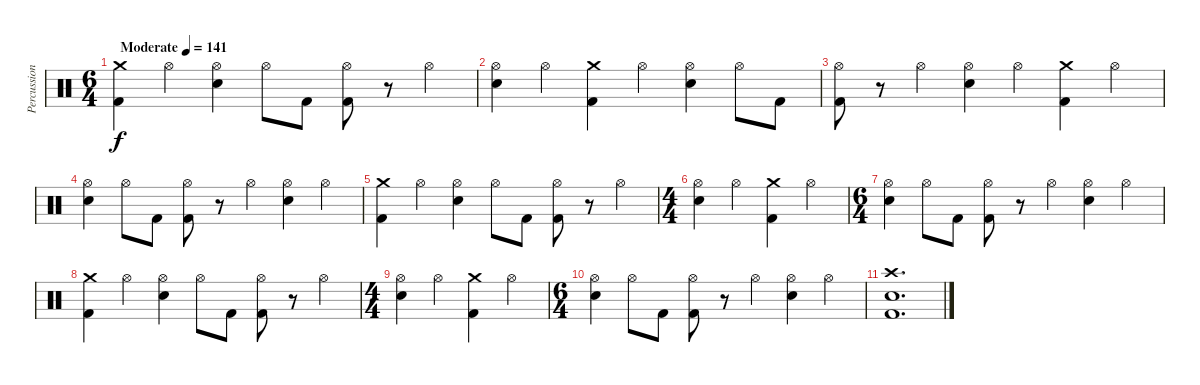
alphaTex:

\track ("Percussion" "Percussion") {instrument percussion}
\staff {score}
\articulation defaults
\ts (6 4)
\tempo (141 "Moderate")
\clef neutral
\ks c
("Crash medium (hit)" "Kick (hit) 2").4{dy f} "Hi-Hat (open)".4 ("Hi-Hat (open)" "Snare (hit) 2").4 "Hi-Hat (open)".8 "Kick (hit) 2".8 ("Hi-Hat (open)" "Kick (hit) 2").8 r.8 "Hi-Hat (open)".4 |
("Hi-Hat (open)" "Snare (hit) 2").4 "Hi-Hat (open)".4 ("Crash medium (hit)" "Kick (hit) 2").4 "Hi-Hat (open)".4 ("Hi-Hat (open)" "Snare (hit) 2").4 "Hi-Hat (open)".8 "Kick (hit) 2".8 |
("Hi-Hat (open)" "Kick (hit) 2").8 r.8 "Hi-Hat (open)".4 ("Hi-Hat (open)" "Snare (hit) 2").4 "Hi-Hat (open)".4 ("Crash medium (hit)" "Kick (hit) 2").4 "Hi-Hat (open)".4 |
("Hi-Hat (open)" "Snare (hit) 2").4 "Hi-Hat (open)".8 "Kick (hit) 2".8 ("Hi-Hat (open)" "Kick (hit) 2").8 r.8 "Hi-Hat (open)".4 ("Hi-Hat (open)" "Snare (hit) 2").4 "Hi-Hat (open)".4 |
("Crash medium (hit)" "Kick (hit) 2").4 "Hi-Hat (open)".4 ("Hi-Hat (open)" "Snare (hit) 2").4 "Hi-Hat (open)".8 "Kick (hit) 2".8 ("Hi-Hat (open)" "Kick (hit) 2").8 r.8 "Hi-Hat (open)".4 |
\ts (4 4)
("Hi-Hat (open)" "Snare (hit) 2").4 "Hi-Hat (open)".4 ("Crash medium (hit)" "Kick (hit) 2").4 "Hi-Hat (open)".4 |
\ts (6 4)
("Hi-Hat (open)" "Snare (hit) 2").4 "Hi-Hat (open)".8 "Kick (hit) 2".8 ("Hi-Hat (open)" "Kick (hit) 2").8 r.8 "Hi-Hat (open)".4 ("Hi-Hat (open)" "Snare (hit) 2").4 "Hi-Hat (open)".4 |
("Crash medium (hit)" "Kick (hit) 2").4 "Hi-Hat (open)".4 ("Hi-Hat (open)" "Snare (hit) 2").4 "Hi-Hat (open)".8 "Kick (hit) 2".8 ("Hi-Hat (open)" "Kick (hit) 2").8 r.8 "Hi-Hat (open)".4 |
\ts (4 4)
("Hi-Hat (open)" "Snare (hit) 2").4 "Hi-Hat (open)".4 ("Crash medium (hit)" "Kick (hit) 2").4 "Hi-Hat (open)".4 |
\ts (6 4)
("Hi-Hat (open)" "Snare (hit) 2").4 "Hi-Hat (open)".8 "Kick (hit) 2".8 ("Hi-Hat (open)" "Kick (hit) 2").8 r.8 "Hi-Hat (open)".4 ("Hi-Hat (open)" "Snare (hit) 2").4 "Hi-Hat (open)".4 |
("Crash high (hit)" "Snare (hit) 2" "Kick (hit) 2").1{d}
